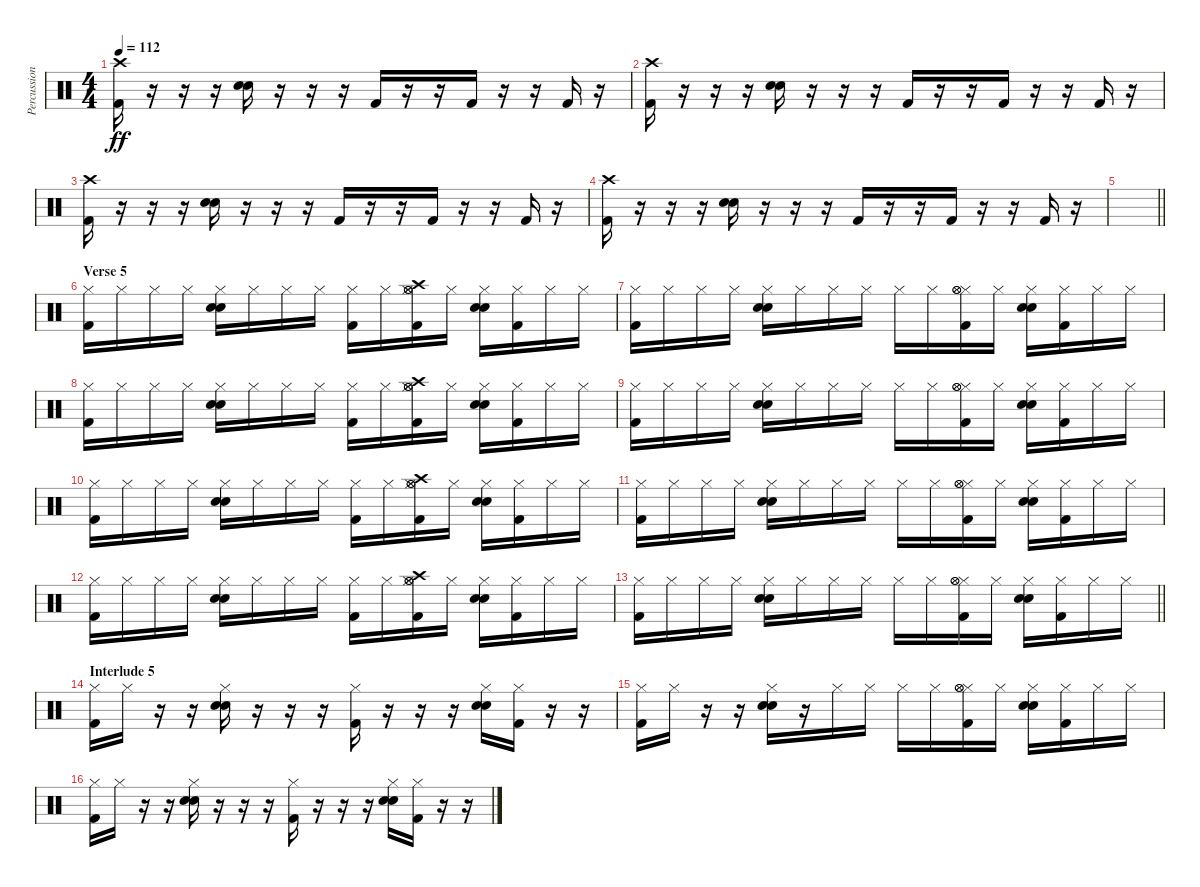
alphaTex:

\track ("Percussion" "Percussion") {instrument percussion}
\staff {score}
\articulation defaults
\ts (4 4)
\tempo 112
\clef neutral
\ks c
("Kick (hit) 2" "Crash high (hit)").16{dy ff} r.16 r.16 r.16 ("Snare (hit) 2" "Hand Clap (hit)").16 r.16 r.16 r.16 "Kick (hit) 2".16 r.16 r.16 "Kick (hit) 2".16 r.16 r.16 "Kick (hit) 2".16 r.16 |
("Kick (hit) 2" "Crash high (hit)").16 r.16 r.16 r.16 ("Snare (hit) 2" "Hand Clap (hit)").16 r.16 r.16 r.16 "Kick (hit) 2".16 r.16 r.16 "Kick (hit) 2".16 r.16 r.16 "Kick (hit) 2".16 r.16 |
("Kick (hit) 2" "Crash high (hit)").16 r.16 r.16 r.16 ("Snare (hit) 2" "Hand Clap (hit)").16 r.16 r.16 r.16 "Kick (hit) 2".16 r.16 r.16 "Kick (hit) 2".16 r.16 r.16 "Kick (hit) 2".16 r.16 |
("Kick (hit) 2" "Crash high (hit)").16 r.16 r.16 r.16 ("Snare (hit) 2" "Hand Clap (hit)").16 r.16 r.16 r.16 "Kick (hit) 2".16 r.16 r.16 "Kick (hit) 2".16 r.16 r.16 "Kick (hit) 2".16 r.16 |
\barLineRight lightlight
|
\section ("" "Verse 5")
("Kick (hit) 2" "Hi-Hat (closed)").16 "Hi-Hat (closed)".16 "Hi-Hat (closed)".16 "Hi-Hat (closed)".16 ("Snare (hit) 2" "Hi-Hat (closed)" "Hand Clap (hit)").16 "Hi-Hat (closed)".16 "Hi-Hat (closed)".16 "Hi-Hat (closed)".16 ("Kick (hit) 2" "Hi-Hat (closed)").16 "Hi-Hat (closed)".16 ("Kick (hit) 2" "Crash high (hit)" "Hi-Hat (closed)" "Hi-Hat (open)" "Hi-Hat (open)").16 "Hi-Hat (closed)".16 ("Snare (hit) 2" "Hi-Hat (closed)" "Hand Clap (hit)").16 ("Kick (hit) 2" "Hi-Hat (closed)").16 "Hi-Hat (closed)".16 "Hi-Hat (closed)".16 |
("Kick (hit) 2" "Hi-Hat (closed)").16 "Hi-Hat (closed)".16 "Hi-Hat (closed)".16 "Hi-Hat (closed)".16 ("Snare (hit) 2" "Hi-Hat (closed)" "Hand Clap (hit)").16 "Hi-Hat (closed)".16 "Hi-Hat (closed)".16 "Hi-Hat (closed)".16 "Hi-Hat (closed)".16 "Hi-Hat (closed)".16 ("Kick (hit) 2" "Hi-Hat (closed)" "Hi-Hat (open)" "Hi-Hat (open)").16 "Hi-Hat (closed)".16 ("Snare (hit) 2" "Hi-Hat (closed)" "Hand Clap (hit)").16 ("Kick (hit) 2" "Hi-Hat (closed)").16 "Hi-Hat (closed)".16 "Hi-Hat (closed)".16 |
("Kick (hit) 2" "Hi-Hat (closed)").16 "Hi-Hat (closed)".16 "Hi-Hat (closed)".16 "Hi-Hat (closed)".16 ("Snare (hit) 2" "Hi-Hat (closed)" "Hand Clap (hit)").16 "Hi-Hat (closed)".16 "Hi-Hat (closed)".16 "Hi-Hat (closed)".16 ("Kick (hit) 2" "Hi-Hat (closed)").16 "Hi-Hat (closed)".16 ("Kick (hit) 2" "Crash high (hit)" "Hi-Hat (closed)" "Hi-Hat (open)" "Hi-Hat (open)").16 "Hi-Hat (closed)".16 ("Snare (hit) 2" "Hi-Hat (closed)" "Hand Clap (hit)").16 ("Kick (hit) 2" "Hi-Hat (closed)").16 "Hi-Hat (closed)".16 "Hi-Hat (closed)".16 |
("Kick (hit) 2" "Hi-Hat (closed)").16 "Hi-Hat (closed)".16 "Hi-Hat (closed)".16 "Hi-Hat (closed)".16 ("Snare (hit) 2" "Hi-Hat (closed)" "Hand Clap (hit)").16 "Hi-Hat (closed)".16 "Hi-Hat (closed)".16 "Hi-Hat (closed)".16 "Hi-Hat (closed)".16 "Hi-Hat (closed)".16 ("Kick (hit) 2" "Hi-Hat (closed)" "Hi-Hat (open)" "Hi-Hat (open)").16 "Hi-Hat (closed)".16 ("Snare (hit) 2" "Hi-Hat (closed)" "Hand Clap (hit)").16 ("Kick (hit) 2" "Hi-Hat (closed)").16 "Hi-Hat (closed)".16 "Hi-Hat (closed)".16 |
("Kick (hit) 2" "Hi-Hat (closed)").16 "Hi-Hat (closed)".16 "Hi-Hat (closed)".16 "Hi-Hat (closed)".16 ("Snare (hit) 2" "Hi-Hat (closed)" "Hand Clap (hit)").16 "Hi-Hat (closed)".16 "Hi-Hat (closed)".16 "Hi-Hat (closed)".16 ("Kick (hit) 2" "Hi-Hat (closed)").16 "Hi-Hat (closed)".16 ("Kick (hit) 2" "Crash high (hit)" "Hi-Hat (closed)" "Hi-Hat (open)" "Hi-Hat (open)").16 "Hi-Hat (closed)".16 ("Snare (hit) 2" "Hi-Hat (closed)" "Hand Clap (hit)").16 ("Kick (hit) 2" "Hi-Hat (closed)").16 "Hi-Hat (closed)".16 "Hi-Hat (closed)".16 |
("Kick (hit) 2" "Hi-Hat (closed)").16 "Hi-Hat (closed)".16 "Hi-Hat (closed)".16 "Hi-Hat (closed)".16 ("Snare (hit) 2" "Hi-Hat (closed)" "Hand Clap (hit)").16 "Hi-Hat (closed)".16 "Hi-Hat (closed)".16 "Hi-Hat (closed)".16 "Hi-Hat (closed)".16 "Hi-Hat (closed)".16 ("Kick (hit) 2" "Hi-Hat (closed)" "Hi-Hat (open)" "Hi-Hat (open)").16 "Hi-Hat (closed)".16 ("Snare (hit) 2" "Hi-Hat (closed)" "Hand Clap (hit)").16 ("Kick (hit) 2" "Hi-Hat (closed)").16 "Hi-Hat (closed)".16 "Hi-Hat (closed)".16 |
("Kick (hit) 2" "Hi-Hat (closed)").16 "Hi-Hat (closed)".16 "Hi-Hat (closed)".16 "Hi-Hat (closed)".16 ("Snare (hit) 2" "Hi-Hat (closed)" "Hand Clap (hit)").16 "Hi-Hat (closed)".16 "Hi-Hat (closed)".16 "Hi-Hat (closed)".16 ("Kick (hit) 2" "Hi-Hat (closed)").16 "Hi-Hat (closed)".16 ("Kick (hit) 2" "Crash high (hit)" "Hi-Hat (closed)" "Hi-Hat (open)" "Hi-Hat (open)").16 "Hi-Hat (closed)".16 ("Snare (hit) 2" "Hi-Hat (closed)" "Hand Clap (hit)").16 ("Kick (hit) 2" "Hi-Hat (closed)").16 "Hi-Hat (closed)".16 "Hi-Hat (closed)".16 |
\barLineRight lightlight
("Kick (hit) 2" "Hi-Hat (closed)").16 "Hi-Hat (closed)".16 "Hi-Hat (closed)".16 "Hi-Hat (closed)".16 ("Snare (hit) 2" "Hi-Hat (closed)" "Hand Clap (hit)").16 "Hi-Hat (closed)".16 "Hi-Hat (closed)".16 "Hi-Hat (closed)".16 "Hi-Hat (closed)".16 "Hi-Hat (closed)".16 ("Kick (hit) 2" "Hi-Hat (closed)" "Hi-Hat (open)" "Hi-Hat (open)").16 "Hi-Hat (closed)".16 ("Snare (hit) 2" "Hi-Hat (closed)" "Hand Clap (hit)").16 ("Kick (hit) 2" "Hi-Hat (closed)").16 "Hi-Hat (closed)".16 "Hi-Hat (closed)".16 |
\section ("" "Interlude 5")
("Kick (hit) 2" "Hi-Hat (closed)").16 "Hi-Hat (closed)".16 r.16 r.16 ("Snare (hit) 2" "Hi-Hat (closed)" "Hand Clap (hit)").16 r.16 r.16 r.16 ("Kick (hit) 2" "Hi-Hat (closed)").16 r.16 r.16 r.16 ("Snare (hit) 2" "Hi-Hat (closed)" "Hand Clap (hit)").16 ("Kick (hit) 2" "Hi-Hat (closed)").16 r.16 r.16 |
("Kick (hit) 2" "Hi-Hat (closed)").16 "Hi-Hat (closed)".16 r.16 r.16 ("Snare (hit) 2" "Hi-Hat (closed)" "Hand Clap (hit)").16 r.16 "Hi-Hat (closed)".16 "Hi-Hat (closed)".16 "Hi-Hat (closed)".16 "Hi-Hat (closed)".16 ("Kick (hit) 2" "Hi-Hat (closed)" "Hi-Hat (open)" "Hi-Hat (open)").16 "Hi-Hat (closed)".16 ("Snare (hit) 2" "Hi-Hat (closed)" "Hand Clap (hit)").16 ("Kick (hit) 2" "Hi-Hat (closed)").16 "Hi-Hat (closed)".16 "Hi-Hat (closed)".16 |
("Kick (hit) 2" "Hi-Hat (closed)").16 "Hi-Hat (closed)".16 r.16 r.16 ("Snare (hit) 2" "Hi-Hat (closed)" "Hand Clap (hit)").16 r.16 r.16 r.16 ("Kick (hit) 2" "Hi-Hat (closed)").16 r.16 r.16 r.16 ("Snare (hit) 2" "Hi-Hat (closed)" "Hand Clap (hit)").16 ("Kick (hit) 2" "Hi-Hat (closed)").16 r.16 r.16
